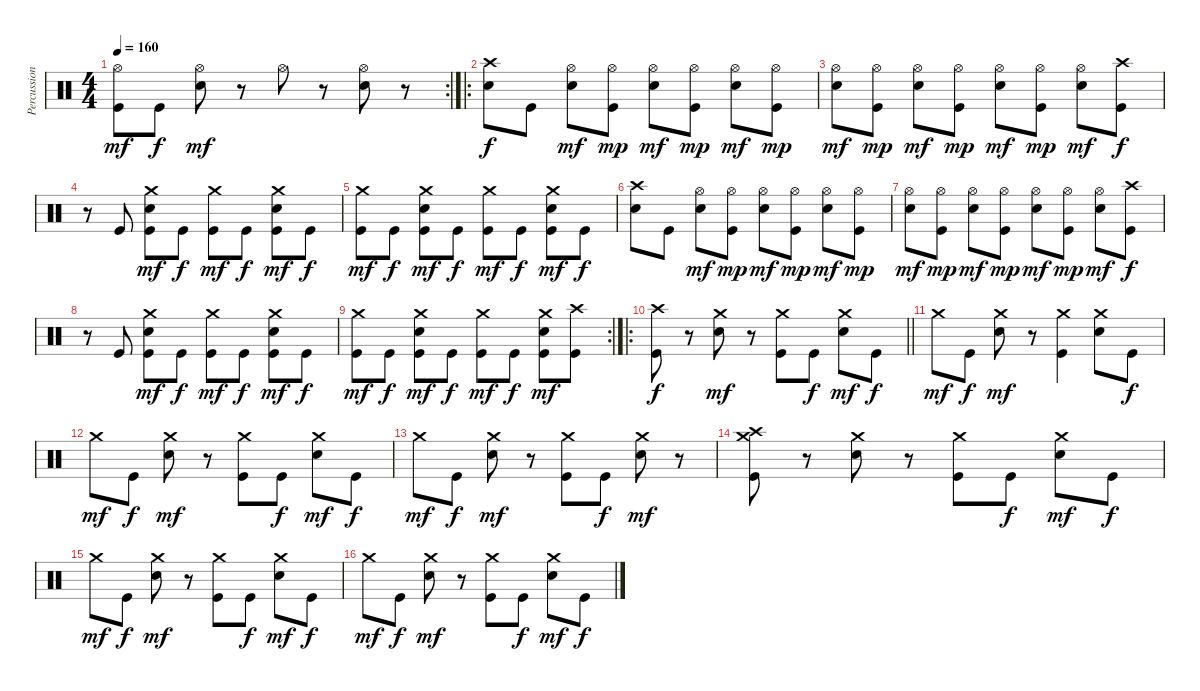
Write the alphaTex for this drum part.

\track ("Percussions" "Percussion") {instrument percussion}
\staff {score}
\articulation defaults
\rc 2
\ts (4 4)
\tempo 160
\clef neutral
\ks c
("Kick (hit)" "Hi-Hat (open)").8{dy mf} "Kick (hit)".8{dy f} ("Electric Snare (hit)" "Hi-Hat (open)").8{dy mf} r.8 "Hi-Hat (open)".8 r.8 ("Electric Snare (hit)" "Hi-Hat (open)").8 r.8 |
\ro
("Electric Snare (hit)" "Crash high (hit)").8{dy f} "Kick (hit)".8 ("Electric Snare (hit)" "Hi-Hat (open)").8{dy mf} ("Kick (hit)" "Hi-Hat (open)").8{dy mp} ("Electric Snare (hit)" "Hi-Hat (open)").8{dy mf} ("Kick (hit)" "Hi-Hat (open)").8{dy mp} ("Electric Snare (hit)" "Hi-Hat (open)").8{dy mf} ("Kick (hit)" "Hi-Hat (open)").8{dy mp} |
("Electric Snare (hit)" "Hi-Hat (open)").8{dy mf} ("Kick (hit)" "Hi-Hat (open)").8{dy mp} ("Electric Snare (hit)" "Hi-Hat (open)").8{dy mf} ("Kick (hit)" "Hi-Hat (open)").8{dy mp} ("Electric Snare (hit)" "Hi-Hat (open)").8{dy mf} ("Kick (hit)" "Hi-Hat (open)").8{dy mp} ("Electric Snare (hit)" "Hi-Hat (open)").8{dy mf} ("Kick (hit)" "Crash high (hit)").8{dy f} |
r.8 "Kick (hit)".8 ("Kick (hit)" "Electric Snare (hit)" "Crash medium (hit)").8{dy mf} "Kick (hit)".8{dy f} ("Kick (hit)" "Crash medium (hit)").8{dy mf} "Kick (hit)".8{dy f} ("Kick (hit)" "Electric Snare (hit)" "Crash medium (hit)").8{dy mf} "Kick (hit)".8{dy f} |
("Kick (hit)" "Crash medium (hit)").8{dy mf} "Kick (hit)".8{dy f} ("Kick (hit)" "Electric Snare (hit)" "Crash medium (hit)").8{dy mf} "Kick (hit)".8{dy f} ("Kick (hit)" "Crash medium (hit)").8{dy mf} "Kick (hit)".8{dy f} ("Kick (hit)" "Electric Snare (hit)" "Crash medium (hit)").8{dy mf} "Kick (hit)".8{dy f} |
("Electric Snare (hit)" "Crash high (hit)").8 "Kick (hit)".8 ("Electric Snare (hit)" "Hi-Hat (open)").8{dy mf} ("Kick (hit)" "Hi-Hat (open)").8{dy mp} ("Electric Snare (hit)" "Hi-Hat (open)").8{dy mf} ("Kick (hit)" "Hi-Hat (open)").8{dy mp} ("Electric Snare (hit)" "Hi-Hat (open)").8{dy mf} ("Kick (hit)" "Hi-Hat (open)").8{dy mp} |
("Electric Snare (hit)" "Hi-Hat (open)").8{dy mf} ("Kick (hit)" "Hi-Hat (open)").8{dy mp} ("Electric Snare (hit)" "Hi-Hat (open)").8{dy mf} ("Kick (hit)" "Hi-Hat (open)").8{dy mp} ("Electric Snare (hit)" "Hi-Hat (open)").8{dy mf} ("Kick (hit)" "Hi-Hat (open)").8{dy mp} ("Electric Snare (hit)" "Hi-Hat (open)").8{dy mf} ("Kick (hit)" "Crash high (hit)").8{dy f} |
r.8 "Kick (hit)".8 ("Kick (hit)" "Electric Snare (hit)" "Crash medium (hit)").8{dy mf} "Kick (hit)".8{dy f} ("Kick (hit)" "Crash medium (hit)").8{dy mf} "Kick (hit)".8{dy f} ("Kick (hit)" "Electric Snare (hit)" "Crash medium (hit)").8{dy mf} "Kick (hit)".8{dy f} |
\rc 2
("Kick (hit)" "Crash medium (hit)").8{dy mf} "Kick (hit)".8{dy f} ("Kick (hit)" "Electric Snare (hit)" "Crash medium (hit)").8{dy mf} "Kick (hit)".8{dy f} ("Kick (hit)" "Crash medium (hit)").8{dy mf} "Kick (hit)".8{dy f} ("Kick (hit)" "Electric Snare (hit)" "Crash medium (hit)").8{dy mf} ("Kick (hit)" "Crash high (hit)").8 |
\ro
\barLineRight lightlight
("Kick (hit)" "Crash high (hit)").8{dy f} r.8 ("Electric Snare (hit)" "Crash medium (hit)").8{dy mf} r.8 ("Kick (hit)" "Crash medium (hit)").8 "Kick (hit)".8{dy f} ("Electric Snare (hit)" "Crash medium (hit)").8{dy mf} "Kick (hit)".8{dy f} |
"Crash medium (hit)".8{dy mf} "Kick (hit)".8{dy f} ("Electric Snare (hit)" "Crash medium (hit)").8{dy mf} r.8 ("Kick (hit)" "Crash medium (hit)").4 ("Electric Snare (hit)" "Crash medium (hit)").8 "Kick (hit)".8{dy f} |
"Crash medium (hit)".8{dy mf} "Kick (hit)".8{dy f} ("Electric Snare (hit)" "Crash medium (hit)").8{dy mf} r.8 ("Kick (hit)" "Crash medium (hit)").8 "Kick (hit)".8{dy f} ("Electric Snare (hit)" "Crash medium (hit)").8{dy mf} "Kick (hit)".8{dy f} |
"Crash medium (hit)".8{dy mf} "Kick (hit)".8{dy f} ("Electric Snare (hit)" "Crash medium (hit)").8{dy mf} r.8 ("Kick (hit)" "Crash medium (hit)").8 "Kick (hit)".8{dy f} ("Electric Snare (hit)" "Crash medium (hit)").8{dy mf} r.8 |
("Kick (hit)" "Crash medium (hit)" "Crash high (hit)").8 r.8 ("Electric Snare (hit)" "Crash medium (hit)").8 r.8 ("Kick (hit)" "Crash medium (hit)").8 "Kick (hit)".8{dy f} ("Electric Snare (hit)" "Crash medium (hit)").8{dy mf} "Kick (hit)".8{dy f} |
"Crash medium (hit)".8{dy mf} "Kick (hit)".8{dy f} ("Electric Snare (hit)" "Crash medium (hit)").8{dy mf} r.8 ("Kick (hit)" "Crash medium (hit)").8 "Kick (hit)".8{dy f} ("Electric Snare (hit)" "Crash medium (hit)").8{dy mf} "Kick (hit)".8{dy f} |
"Crash medium (hit)".8{dy mf} "Kick (hit)".8{dy f} ("Electric Snare (hit)" "Crash medium (hit)").8{dy mf} r.8 ("Kick (hit)" "Crash medium (hit)").8 "Kick (hit)".8{dy f} ("Electric Snare (hit)" "Crash medium (hit)").8{dy mf} "Kick (hit)".8{dy f}
